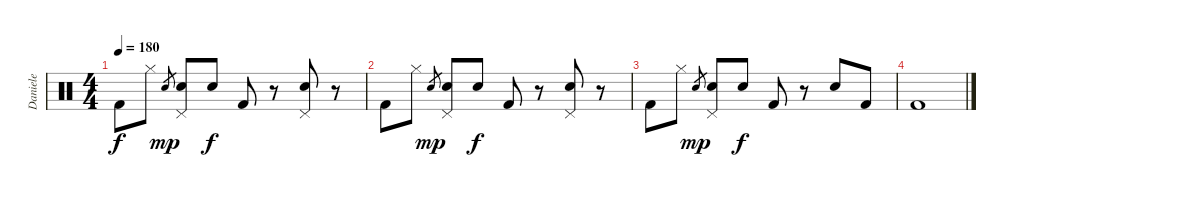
\track ("Daniele" "Daniele") {instrument percussion}
\staff {score}
\articulation defaults
\ts (4 4)
\tempo 180
\clef neutral
\ks c "Kick (hit) 2".8{dy f} "Hi-Hat (closed)".8 "Electric Snare (hit)".8{gr dy mp}
("Electric Snare (hit)" "Pedal Hi-Hat (hit)").8 "Electric Snare (hit)".8{dy f} "Kick (hit) 2".8 r.8 ("Electric Snare (hit)" "Pedal Hi-Hat (hit)").8 r.8 |
"Kick (hit) 2".8 "Hi-Hat (closed)".8 "Electric Snare (hit)".8{gr dy mp} ("Electric Snare (hit)" "Pedal Hi-Hat (hit)").8 "Electric Snare (hit)".8{dy f} "Kick (hit) 2".8 r.8 ("Electric Snare (hit)" "Pedal Hi-Hat (hit)").8 r.8 |
"Kick (hit) 2".8 "Hi-Hat (closed)".8 "Electric Snare (hit)".8{gr dy mp} ("Electric Snare (hit)" "Pedal Hi-Hat (hit)").8 "Electric Snare (hit)".8{dy f} "Kick (hit) 2".8 r.8 "Electric Snare (hit)".8 "Kick (hit) 2".8 |
"Kick (hit) 2".1
